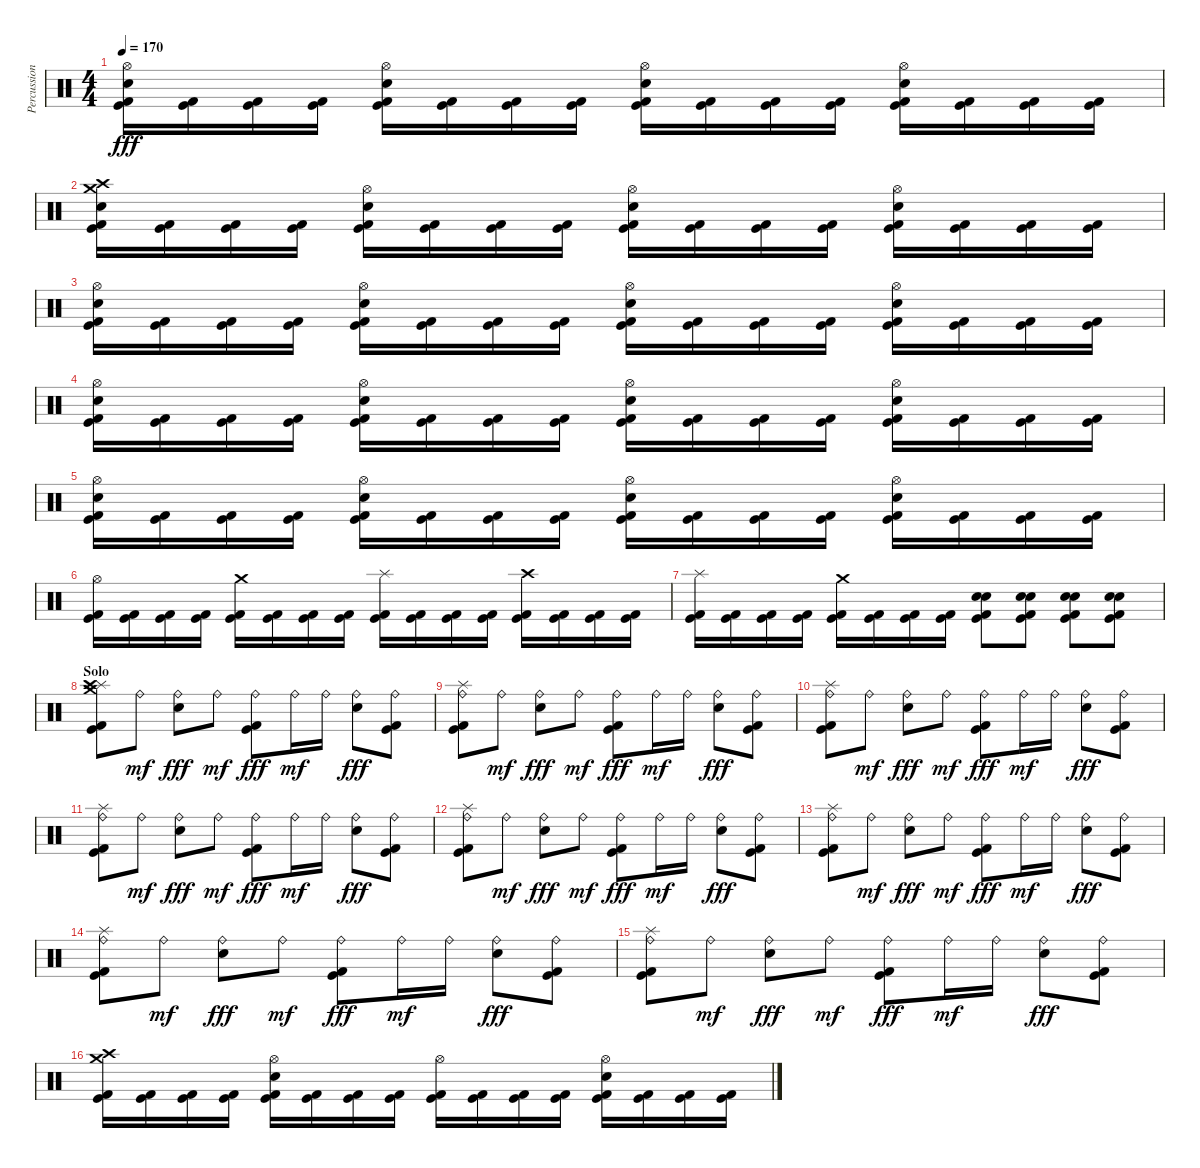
\track ("Percussions" "Percussion") {instrument percussion}
\staff {score}
\articulation defaults
\ts (4 4)
\tempo 170
\clef neutral
\ks c
("Hi-Hat (open)" "Electric Snare (hit)" "Kick (hit)" "Kick (hit) 2").16{dy fff} ("Kick (hit)" "Kick (hit) 2").16 ("Kick (hit)" "Kick (hit) 2").16 ("Kick (hit)" "Kick (hit) 2").16 ("Hi-Hat (open)" "Electric Snare (hit)" "Kick (hit)" "Kick (hit) 2").16 ("Kick (hit)" "Kick (hit) 2").16 ("Kick (hit)" "Kick (hit) 2").16 ("Kick (hit)" "Kick (hit) 2").16 ("Hi-Hat (open)" "Electric Snare (hit)" "Kick (hit)" "Kick (hit) 2").16 ("Kick (hit)" "Kick (hit) 2").16 ("Kick (hit)" "Kick (hit) 2").16 ("Kick (hit)" "Kick (hit) 2").16 ("Hi-Hat (open)" "Electric Snare (hit)" "Kick (hit)" "Kick (hit) 2").16 ("Kick (hit)" "Kick (hit) 2").16 ("Kick (hit)" "Kick (hit) 2").16 ("Kick (hit)" "Kick (hit) 2").16 |
("Crash high (hit)" "Crash medium (hit)" "Electric Snare (hit)" "Kick (hit)" "Kick (hit) 2").16 ("Kick (hit)" "Kick (hit) 2").16 ("Kick (hit)" "Kick (hit) 2").16 ("Kick (hit)" "Kick (hit) 2").16 ("Hi-Hat (open)" "Electric Snare (hit)" "Kick (hit)" "Kick (hit) 2").16 ("Kick (hit)" "Kick (hit) 2").16 ("Kick (hit)" "Kick (hit) 2").16 ("Kick (hit)" "Kick (hit) 2").16 ("Hi-Hat (open)" "Electric Snare (hit)" "Kick (hit)" "Kick (hit) 2").16 ("Kick (hit)" "Kick (hit) 2").16 ("Kick (hit)" "Kick (hit) 2").16 ("Kick (hit)" "Kick (hit) 2").16 ("Hi-Hat (open)" "Electric Snare (hit)" "Kick (hit)" "Kick (hit) 2").16 ("Kick (hit)" "Kick (hit) 2").16 ("Kick (hit)" "Kick (hit) 2").16 ("Kick (hit)" "Kick (hit) 2").16 |
("Hi-Hat (open)" "Electric Snare (hit)" "Kick (hit)" "Kick (hit) 2").16 ("Kick (hit)" "Kick (hit) 2").16 ("Kick (hit)" "Kick (hit) 2").16 ("Kick (hit)" "Kick (hit) 2").16 ("Hi-Hat (open)" "Electric Snare (hit)" "Kick (hit)" "Kick (hit) 2").16 ("Kick (hit)" "Kick (hit) 2").16 ("Kick (hit)" "Kick (hit) 2").16 ("Kick (hit)" "Kick (hit) 2").16 ("Hi-Hat (open)" "Electric Snare (hit)" "Kick (hit)" "Kick (hit) 2").16 ("Kick (hit)" "Kick (hit) 2").16 ("Kick (hit)" "Kick (hit) 2").16 ("Kick (hit)" "Kick (hit) 2").16 ("Hi-Hat (open)" "Electric Snare (hit)" "Kick (hit)" "Kick (hit) 2").16 ("Kick (hit)" "Kick (hit) 2").16 ("Kick (hit)" "Kick (hit) 2").16 ("Kick (hit)" "Kick (hit) 2").16 |
("Hi-Hat (open)" "Electric Snare (hit)" "Kick (hit)" "Kick (hit) 2").16 ("Kick (hit)" "Kick (hit) 2").16 ("Kick (hit)" "Kick (hit) 2").16 ("Kick (hit)" "Kick (hit) 2").16 ("Hi-Hat (open)" "Electric Snare (hit)" "Kick (hit)" "Kick (hit) 2").16 ("Kick (hit)" "Kick (hit) 2").16 ("Kick (hit)" "Kick (hit) 2").16 ("Kick (hit)" "Kick (hit) 2").16 ("Hi-Hat (open)" "Electric Snare (hit)" "Kick (hit)" "Kick (hit) 2").16 ("Kick (hit)" "Kick (hit) 2").16 ("Kick (hit)" "Kick (hit) 2").16 ("Kick (hit)" "Kick (hit) 2").16 ("Hi-Hat (open)" "Electric Snare (hit)" "Kick (hit)" "Kick (hit) 2").16 ("Kick (hit)" "Kick (hit) 2").16 ("Kick (hit)" "Kick (hit) 2").16 ("Kick (hit)" "Kick (hit) 2").16 |
("Hi-Hat (open)" "Electric Snare (hit)" "Kick (hit)" "Kick (hit) 2").16 ("Kick (hit)" "Kick (hit) 2").16 ("Kick (hit)" "Kick (hit) 2").16 ("Kick (hit)" "Kick (hit) 2").16 ("Hi-Hat (open)" "Electric Snare (hit)" "Kick (hit)" "Kick (hit) 2").16 ("Kick (hit)" "Kick (hit) 2").16 ("Kick (hit)" "Kick (hit) 2").16 ("Kick (hit)" "Kick (hit) 2").16 ("Hi-Hat (open)" "Electric Snare (hit)" "Kick (hit)" "Kick (hit) 2").16 ("Kick (hit)" "Kick (hit) 2").16 ("Kick (hit)" "Kick (hit) 2").16 ("Kick (hit)" "Kick (hit) 2").16 ("Hi-Hat (open)" "Electric Snare (hit)" "Kick (hit)" "Kick (hit) 2").16 ("Kick (hit)" "Kick (hit) 2").16 ("Kick (hit)" "Kick (hit) 2").16 ("Kick (hit)" "Kick (hit) 2").16 |
("Hi-Hat (open)" "Kick (hit)" "Kick (hit) 2").16 ("Kick (hit)" "Kick (hit) 2").16 ("Kick (hit)" "Kick (hit) 2").16 ("Kick (hit)" "Kick (hit) 2").16 ("Crash medium (hit)" "Kick (hit)" "Kick (hit) 2").16 ("Kick (hit)" "Kick (hit) 2").16 ("Kick (hit)" "Kick (hit) 2").16 ("Kick (hit)" "Kick (hit) 2").16 ("Splash (hit)" "Kick (hit)" "Kick (hit) 2").16 ("Kick (hit)" "Kick (hit) 2").16 ("Kick (hit)" "Kick (hit) 2").16 ("Kick (hit)" "Kick (hit) 2").16 ("Crash high (hit)" "Kick (hit)" "Kick (hit) 2").16 ("Kick (hit)" "Kick (hit) 2").16 ("Kick (hit)" "Kick (hit) 2").16 ("Kick (hit)" "Kick (hit) 2").16 |
("Splash (hit)" "Kick (hit)" "Kick (hit) 2").16 ("Kick (hit)" "Kick (hit) 2").16 ("Kick (hit)" "Kick (hit) 2").16 ("Kick (hit)" "Kick (hit) 2").16 ("Crash medium (hit)" "Kick (hit)" "Kick (hit) 2").16 ("Kick (hit)" "Kick (hit) 2").16 ("Kick (hit)" "Kick (hit) 2").16 ("Kick (hit)" "Kick (hit) 2").16 ("Snare (hit) 2" "Electric Snare (hit)" "Kick (hit)" "Kick (hit) 2").8 ("Snare (hit) 2" "Electric Snare (hit)" "Kick (hit)" "Kick (hit) 2").8 ("Snare (hit) 2" "Electric Snare (hit)" "Kick (hit)" "Kick (hit) 2").8 ("Snare (hit) 2" "Electric Snare (hit)" "Kick (hit)" "Kick (hit) 2").8 |
\section ("" "Solo")
("Splash (hit)" "Crash medium (hit)" "Crash high (hit)" "Kick (hit)" "Kick (hit) 2").8 "Ride (bell)".8{dy mf} ("Ride (bell)" "Electric Snare (hit)").8{dy fff} "Ride (bell)".8{dy mf} ("Ride (bell)" "Kick (hit)" "Kick (hit) 2").8{dy fff} "Ride (bell)".16{dy mf} "Ride (bell)".16 ("Ride (bell)" "Electric Snare (hit)").8{dy fff} ("Ride (bell)" "Kick (hit)" "Kick (hit) 2").8 |
("Splash (hit)" "Ride (bell)" "Kick (hit)" "Kick (hit) 2").8 "Ride (bell)".8{dy mf} ("Ride (bell)" "Electric Snare (hit)").8{dy fff} "Ride (bell)".8{dy mf} ("Ride (bell)" "Kick (hit)" "Kick (hit) 2").8{dy fff} "Ride (bell)".16{dy mf} "Ride (bell)".16 ("Ride (bell)" "Electric Snare (hit)").8{dy fff} ("Ride (bell)" "Kick (hit)" "Kick (hit) 2").8 |
("Splash (hit)" "Ride (bell)" "Kick (hit)" "Kick (hit) 2").8 "Ride (bell)".8{dy mf} ("Ride (bell)" "Electric Snare (hit)").8{dy fff} "Ride (bell)".8{dy mf} ("Ride (bell)" "Kick (hit)" "Kick (hit) 2").8{dy fff} "Ride (bell)".16{dy mf} "Ride (bell)".16 ("Ride (bell)" "Electric Snare (hit)").8{dy fff} ("Ride (bell)" "Kick (hit)" "Kick (hit) 2").8 |
("Splash (hit)" "Ride (bell)" "Kick (hit)" "Kick (hit) 2").8 "Ride (bell)".8{dy mf} ("Ride (bell)" "Electric Snare (hit)").8{dy fff} "Ride (bell)".8{dy mf} ("Ride (bell)" "Kick (hit)" "Kick (hit) 2").8{dy fff} "Ride (bell)".16{dy mf} "Ride (bell)".16 ("Ride (bell)" "Electric Snare (hit)").8{dy fff} ("Ride (bell)" "Kick (hit)" "Kick (hit) 2").8 |
("Splash (hit)" "Ride (bell)" "Kick (hit)" "Kick (hit) 2").8 "Ride (bell)".8{dy mf} ("Ride (bell)" "Electric Snare (hit)").8{dy fff} "Ride (bell)".8{dy mf} ("Ride (bell)" "Kick (hit)" "Kick (hit) 2").8{dy fff} "Ride (bell)".16{dy mf} "Ride (bell)".16 ("Ride (bell)" "Electric Snare (hit)").8{dy fff} ("Ride (bell)" "Kick (hit)" "Kick (hit) 2").8 |
("Splash (hit)" "Ride (bell)" "Kick (hit)" "Kick (hit) 2").8 "Ride (bell)".8{dy mf} ("Ride (bell)" "Electric Snare (hit)").8{dy fff} "Ride (bell)".8{dy mf} ("Ride (bell)" "Kick (hit)" "Kick (hit) 2").8{dy fff} "Ride (bell)".16{dy mf} "Ride (bell)".16 ("Ride (bell)" "Electric Snare (hit)").8{dy fff} ("Ride (bell)" "Kick (hit)" "Kick (hit) 2").8 |
("Splash (hit)" "Ride (bell)" "Kick (hit)" "Kick (hit) 2").8 "Ride (bell)".8{dy mf} ("Ride (bell)" "Electric Snare (hit)").8{dy fff} "Ride (bell)".8{dy mf} ("Ride (bell)" "Kick (hit)" "Kick (hit) 2").8{dy fff} "Ride (bell)".16{dy mf} "Ride (bell)".16 ("Ride (bell)" "Electric Snare (hit)").8{dy fff} ("Ride (bell)" "Kick (hit)" "Kick (hit) 2").8 |
("Splash (hit)" "Ride (bell)" "Kick (hit)" "Kick (hit) 2").8 "Ride (bell)".8{dy mf} ("Ride (bell)" "Electric Snare (hit)").8{dy fff} "Ride (bell)".8{dy mf} ("Ride (bell)" "Kick (hit)" "Kick (hit) 2").8{dy fff} "Ride (bell)".16{dy mf} "Ride (bell)".16 ("Ride (bell)" "Electric Snare (hit)").8{dy fff} ("Ride (bell)" "Kick (hit)" "Kick (hit) 2").8 |
("Crash high (hit)" "Crash medium (hit)" "Kick (hit)" "Kick (hit) 2").16 ("Kick (hit)" "Kick (hit) 2").16 ("Kick (hit)" "Kick (hit) 2").16 ("Kick (hit)" "Kick (hit) 2").16 ("Hi-Hat (open)" "Electric Snare (hit)" "Kick (hit)" "Kick (hit) 2").16 ("Kick (hit)" "Kick (hit) 2").16 ("Kick (hit)" "Kick (hit) 2").16 ("Kick (hit)" "Kick (hit) 2").16 ("Hi-Hat (open)" "Kick (hit)" "Kick (hit) 2").16 ("Kick (hit)" "Kick (hit) 2").16 ("Kick (hit)" "Kick (hit) 2").16 ("Kick (hit)" "Kick (hit) 2").16 ("Hi-Hat (open)" "Electric Snare (hit)" "Kick (hit)" "Kick (hit) 2").16 ("Kick (hit)" "Kick (hit) 2").16 ("Kick (hit)" "Kick (hit) 2").16 ("Kick (hit)" "Kick (hit) 2").16
